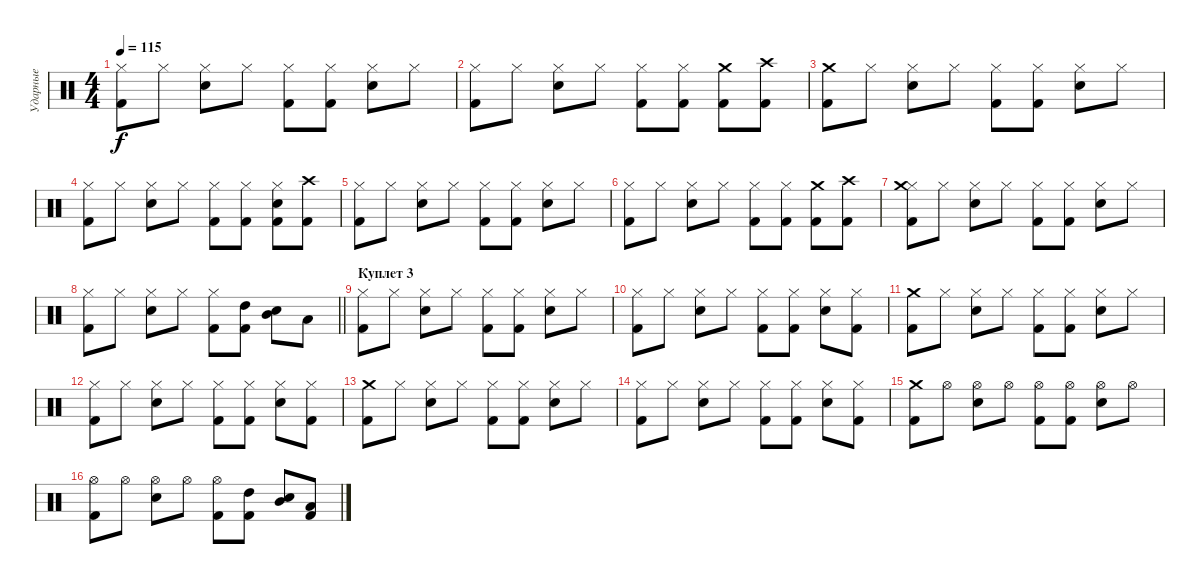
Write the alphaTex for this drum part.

\track ("Ударные" "Ударные") {instrument percussion}
\staff {score}
\articulation defaults
\ts (4 4)
\tempo 115
\clef neutral
\ks c
("Kick (hit) 2" "Hi-Hat (closed)").8{dy f} "Hi-Hat (closed)".8 ("Snare (hit) 2" "Hi-Hat (closed)").8 "Hi-Hat (closed)".8 ("Kick (hit) 2" "Hi-Hat (closed)").8 ("Kick (hit) 2" "Hi-Hat (closed)").8 ("Snare (hit) 2" "Hi-Hat (closed)").8 "Hi-Hat (closed)".8 |
("Kick (hit) 2" "Hi-Hat (closed)").8 "Hi-Hat (closed)".8 ("Snare (hit) 2" "Hi-Hat (closed)").8 "Hi-Hat (closed)".8 ("Kick (hit) 2" "Hi-Hat (closed)").8 ("Kick (hit) 2" "Hi-Hat (closed)").8 ("Kick (hit) 2" "Crash medium (hit)").8 ("Kick (hit) 2" "Crash high (hit)").8 |
("Kick (hit) 2" "Crash medium (hit)").8 "Hi-Hat (closed)".8 ("Snare (hit) 2" "Hi-Hat (closed)").8 "Hi-Hat (closed)".8 ("Kick (hit) 2" "Hi-Hat (closed)").8 ("Kick (hit) 2" "Hi-Hat (closed)").8 ("Snare (hit) 2" "Hi-Hat (closed)").8 "Hi-Hat (closed)".8 |
("Kick (hit) 2" "Hi-Hat (closed)").8 "Hi-Hat (closed)".8 ("Snare (hit) 2" "Hi-Hat (closed)").8 "Hi-Hat (closed)".8 ("Kick (hit) 2" "Hi-Hat (closed)").8 ("Kick (hit) 2" "Hi-Hat (closed)").8 ("Kick (hit) 2" "Snare (hit) 2" "Hi-Hat (closed)").8 ("Kick (hit) 2" "Crash high (hit)").8 |
("Kick (hit) 2" "Hi-Hat (closed)").8 "Hi-Hat (closed)".8 ("Snare (hit) 2" "Hi-Hat (closed)").8 "Hi-Hat (closed)".8 ("Kick (hit) 2" "Hi-Hat (closed)").8 ("Kick (hit) 2" "Hi-Hat (closed)").8 ("Snare (hit) 2" "Hi-Hat (closed)").8 "Hi-Hat (closed)".8 |
("Kick (hit) 2" "Hi-Hat (closed)").8 "Hi-Hat (closed)".8 ("Snare (hit) 2" "Hi-Hat (closed)").8 "Hi-Hat (closed)".8 ("Kick (hit) 2" "Hi-Hat (closed)").8 ("Kick (hit) 2" "Hi-Hat (closed)").8 ("Kick (hit) 2" "Crash medium (hit)").8 ("Kick (hit) 2" "Crash high (hit)").8 |
("Kick (hit) 2" "Hi-Hat (closed)" "Crash medium (hit)").8 "Hi-Hat (closed)".8 ("Snare (hit) 2" "Hi-Hat (closed)").8 "Hi-Hat (closed)".8 ("Kick (hit) 2" "Hi-Hat (closed)").8 ("Kick (hit) 2" "Hi-Hat (closed)").8 ("Snare (hit) 2" "Hi-Hat (closed)").8 "Hi-Hat (closed)".8 |
\barLineRight lightlight
("Kick (hit) 2" "Hi-Hat (closed)").8 "Hi-Hat (closed)".8 ("Snare (hit) 2" "Hi-Hat (closed)").8 "Hi-Hat (closed)".8 ("Kick (hit) 2" "Hi-Hat (closed)").8 ("Kick (hit) 2" "High Tom (hit)").8 ("Snare (hit) 2" "Mid Tom (hit)").8 "Low Tom (hit)".8 |
\section ("" "Куплет 3")
("Kick (hit) 2" "Hi-Hat (closed)").8 "Hi-Hat (closed)".8 ("Snare (hit) 2" "Hi-Hat (closed)").8 "Hi-Hat (closed)".8 ("Kick (hit) 2" "Hi-Hat (closed)").8 ("Kick (hit) 2" "Hi-Hat (closed)").8 ("Snare (hit) 2" "Hi-Hat (closed)").8 "Hi-Hat (closed)".8 |
("Kick (hit) 2" "Hi-Hat (closed)").8 "Hi-Hat (closed)".8 ("Snare (hit) 2" "Hi-Hat (closed)").8 "Hi-Hat (closed)".8 ("Kick (hit) 2" "Hi-Hat (closed)").8 ("Kick (hit) 2" "Hi-Hat (closed)").8 ("Snare (hit) 2" "Hi-Hat (closed)").8 ("Kick (hit) 2" "Hi-Hat (closed)").8 |
("Kick (hit) 2" "Crash medium (hit)").8 "Hi-Hat (closed)".8 ("Snare (hit) 2" "Hi-Hat (closed)").8 "Hi-Hat (closed)".8 ("Kick (hit) 2" "Hi-Hat (closed)").8 ("Kick (hit) 2" "Hi-Hat (closed)").8 ("Snare (hit) 2" "Hi-Hat (closed)").8 "Hi-Hat (closed)".8 |
("Kick (hit) 2" "Hi-Hat (closed)").8 "Hi-Hat (closed)".8 ("Snare (hit) 2" "Hi-Hat (closed)").8 "Hi-Hat (closed)".8 ("Kick (hit) 2" "Hi-Hat (closed)").8 ("Kick (hit) 2" "Hi-Hat (closed)").8 ("Snare (hit) 2" "Hi-Hat (closed)").8 ("Kick (hit) 2" "Hi-Hat (closed)").8 |
("Kick (hit) 2" "Crash medium (hit)").8 "Hi-Hat (closed)".8 ("Snare (hit) 2" "Hi-Hat (closed)").8 "Hi-Hat (closed)".8 ("Kick (hit) 2" "Hi-Hat (closed)").8 ("Kick (hit) 2" "Hi-Hat (closed)").8 ("Snare (hit) 2" "Hi-Hat (closed)").8 "Hi-Hat (closed)".8 |
("Kick (hit) 2" "Hi-Hat (closed)").8 "Hi-Hat (closed)".8 ("Snare (hit) 2" "Hi-Hat (closed)").8 "Hi-Hat (closed)".8 ("Kick (hit) 2" "Hi-Hat (closed)").8 ("Kick (hit) 2" "Hi-Hat (closed)").8 ("Snare (hit) 2" "Hi-Hat (closed)").8 ("Kick (hit) 2" "Hi-Hat (closed)").8 |
("Kick (hit) 2" "Crash medium (hit)").8 "Hi-Hat (open)".8 ("Snare (hit) 2" "Hi-Hat (open)").8 "Hi-Hat (open)".8 ("Kick (hit) 2" "Hi-Hat (open)").8 ("Kick (hit) 2" "Hi-Hat (open)").8 ("Snare (hit) 2" "Hi-Hat (open)").8 "Hi-Hat (open)".8 |
("Kick (hit) 2" "Hi-Hat (open)").8 "Hi-Hat (open)".8 ("Snare (hit) 2" "Hi-Hat (open)").8 "Hi-Hat (open)".8 ("Kick (hit) 2" "Hi-Hat (open)").8 ("Kick (hit) 2" "High Tom (hit)").8 ("Snare (hit) 2" "Mid Tom (hit)").8 ("Kick (hit) 2" "Low Tom (hit)").8
